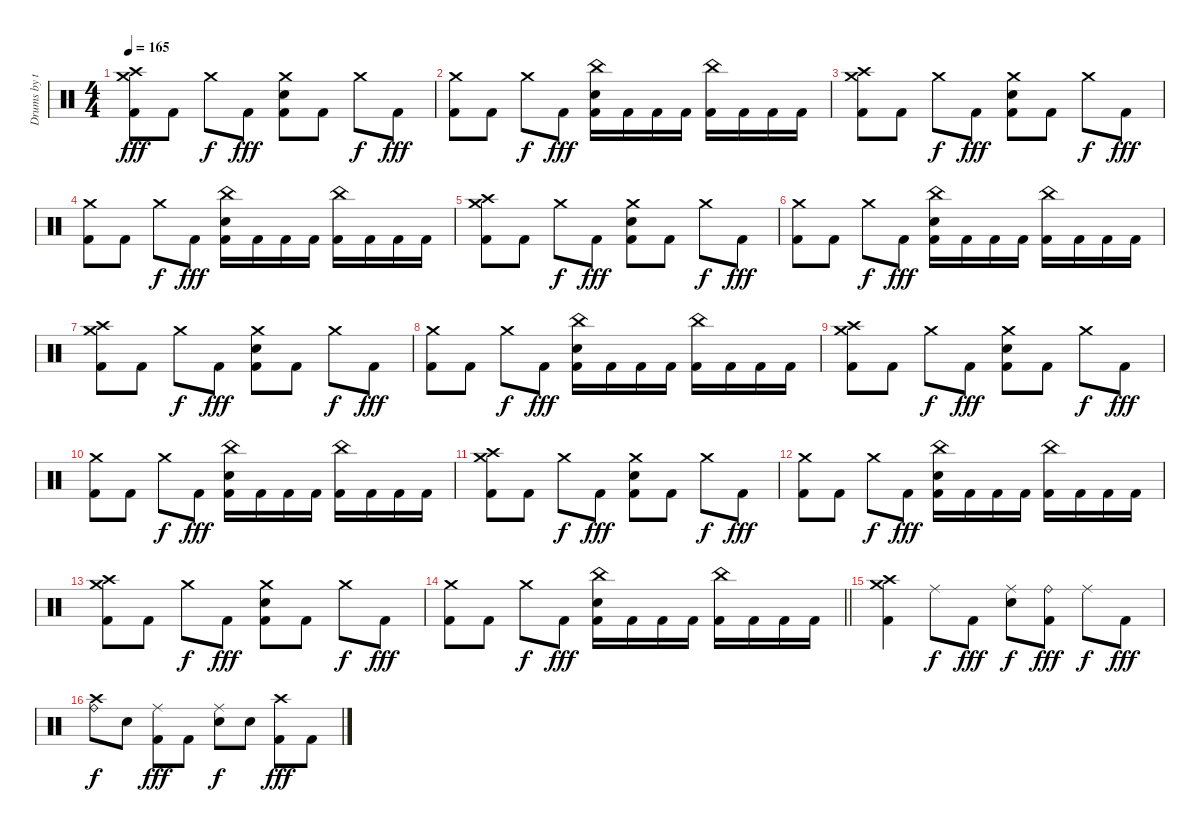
\track ("Drums by terryn0" "Drums by t") {instrument percussion}
\staff {score}
\articulation defaults
\ts (4 4)
\tempo 165
\clef neutral
\ks c
("Crash medium (hit)" "Crash high (hit)" "Kick (hit) 2").8{dy fff} "Kick (hit) 2".8 "Crash medium (hit)".8{dy f} "Kick (hit) 2".8{dy fff} ("Crash medium (hit)" "Electric Snare (hit)" "Kick (hit) 2").8 "Kick (hit) 2".8 "Crash medium (hit)".8{dy f} "Kick (hit) 2".8{dy fff} |
("Crash medium (hit)" "Kick (hit) 2").8 "Kick (hit) 2".8 "Crash medium (hit)".8{dy f} "Kick (hit) 2".8{dy fff} ("China (hit)" "Electric Snare (hit)" "Kick (hit) 2").16 "Kick (hit) 2".16 "Kick (hit) 2".16 "Kick (hit) 2".16 ("China (hit)" "Kick (hit) 2").16 "Kick (hit) 2".16 "Kick (hit) 2".16 "Kick (hit) 2".16 |
("Crash medium (hit)" "Crash high (hit)" "Kick (hit) 2").8 "Kick (hit) 2".8 "Crash medium (hit)".8{dy f} "Kick (hit) 2".8{dy fff} ("Crash medium (hit)" "Electric Snare (hit)" "Kick (hit) 2").8 "Kick (hit) 2".8 "Crash medium (hit)".8{dy f} "Kick (hit) 2".8{dy fff} |
("Crash medium (hit)" "Kick (hit) 2").8 "Kick (hit) 2".8 "Crash medium (hit)".8{dy f} "Kick (hit) 2".8{dy fff} ("China (hit)" "Electric Snare (hit)" "Kick (hit) 2").16 "Kick (hit) 2".16 "Kick (hit) 2".16 "Kick (hit) 2".16 ("China (hit)" "Kick (hit) 2").16 "Kick (hit) 2".16 "Kick (hit) 2".16 "Kick (hit) 2".16 |
("Crash medium (hit)" "Crash high (hit)" "Kick (hit) 2").8 "Kick (hit) 2".8 "Crash medium (hit)".8{dy f} "Kick (hit) 2".8{dy fff} ("Crash medium (hit)" "Electric Snare (hit)" "Kick (hit) 2").8 "Kick (hit) 2".8 "Crash medium (hit)".8{dy f} "Kick (hit) 2".8{dy fff} |
("Crash medium (hit)" "Kick (hit) 2").8 "Kick (hit) 2".8 "Crash medium (hit)".8{dy f} "Kick (hit) 2".8{dy fff} ("China (hit)" "Electric Snare (hit)" "Kick (hit) 2").16 "Kick (hit) 2".16 "Kick (hit) 2".16 "Kick (hit) 2".16 ("China (hit)" "Kick (hit) 2").16 "Kick (hit) 2".16 "Kick (hit) 2".16 "Kick (hit) 2".16 |
("Crash medium (hit)" "Crash high (hit)" "Kick (hit) 2").8 "Kick (hit) 2".8 "Crash medium (hit)".8{dy f} "Kick (hit) 2".8{dy fff} ("Crash medium (hit)" "Electric Snare (hit)" "Kick (hit) 2").8 "Kick (hit) 2".8 "Crash medium (hit)".8{dy f} "Kick (hit) 2".8{dy fff} |
("Crash medium (hit)" "Kick (hit) 2").8 "Kick (hit) 2".8 "Crash medium (hit)".8{dy f} "Kick (hit) 2".8{dy fff} ("China (hit)" "Electric Snare (hit)" "Kick (hit) 2").16 "Kick (hit) 2".16 "Kick (hit) 2".16 "Kick (hit) 2".16 ("China (hit)" "Kick (hit) 2").16 "Kick (hit) 2".16 "Kick (hit) 2".16 "Kick (hit) 2".16 |
("Crash medium (hit)" "Crash high (hit)" "Kick (hit) 2").8 "Kick (hit) 2".8 "Crash medium (hit)".8{dy f} "Kick (hit) 2".8{dy fff} ("Crash medium (hit)" "Electric Snare (hit)" "Kick (hit) 2").8 "Kick (hit) 2".8 "Crash medium (hit)".8{dy f} "Kick (hit) 2".8{dy fff} |
("Crash medium (hit)" "Kick (hit) 2").8 "Kick (hit) 2".8 "Crash medium (hit)".8{dy f} "Kick (hit) 2".8{dy fff} ("China (hit)" "Electric Snare (hit)" "Kick (hit) 2").16 "Kick (hit) 2".16 "Kick (hit) 2".16 "Kick (hit) 2".16 ("China (hit)" "Kick (hit) 2").16 "Kick (hit) 2".16 "Kick (hit) 2".16 "Kick (hit) 2".16 |
("Crash medium (hit)" "Crash high (hit)" "Kick (hit) 2").8 "Kick (hit) 2".8 "Crash medium (hit)".8{dy f} "Kick (hit) 2".8{dy fff} ("Crash medium (hit)" "Electric Snare (hit)" "Kick (hit) 2").8 "Kick (hit) 2".8 "Crash medium (hit)".8{dy f} "Kick (hit) 2".8{dy fff} |
("Crash medium (hit)" "Kick (hit) 2").8 "Kick (hit) 2".8 "Crash medium (hit)".8{dy f} "Kick (hit) 2".8{dy fff} ("China (hit)" "Electric Snare (hit)" "Kick (hit) 2").16 "Kick (hit) 2".16 "Kick (hit) 2".16 "Kick (hit) 2".16 ("China (hit)" "Kick (hit) 2").16 "Kick (hit) 2".16 "Kick (hit) 2".16 "Kick (hit) 2".16 |
("Crash medium (hit)" "Crash high (hit)" "Kick (hit) 2").8 "Kick (hit) 2".8 "Crash medium (hit)".8{dy f} "Kick (hit) 2".8{dy fff} ("Crash medium (hit)" "Electric Snare (hit)" "Kick (hit) 2").8 "Kick (hit) 2".8 "Crash medium (hit)".8{dy f} "Kick (hit) 2".8{dy fff} |
\barLineRight lightlight
("Crash medium (hit)" "Kick (hit) 2").8 "Kick (hit) 2".8 "Crash medium (hit)".8{dy f} "Kick (hit) 2".8{dy fff} ("China (hit)" "Electric Snare (hit)" "Kick (hit) 2").16 "Kick (hit) 2".16 "Kick (hit) 2".16 "Kick (hit) 2".16 ("China (hit)" "Kick (hit) 2").16 "Kick (hit) 2".16 "Kick (hit) 2".16 "Kick (hit) 2".16 |
("Crash high (hit)" "Crash medium (hit)" "Kick (hit) 2").4 "Ride (middle)".8{dy f} "Kick (hit) 2".8{dy fff} ("Ride (middle)" "Electric Snare (hit)").8{dy f} ("Ride (bell)" "Kick (hit) 2").8{dy fff} "Ride (middle)".8{dy f} "Kick (hit) 2".8{dy fff} |
("Ride (bell)" "Crash high (hit)").8{dy f} "Electric Snare (hit)".8 ("Ride (middle)" "Kick (hit) 2").8{dy fff} "Kick (hit) 2".8 ("Ride (middle)" "Electric Snare (hit)").8{dy f} "Electric Snare (hit)".8 ("Crash high (hit)" "Kick (hit) 2").8{dy fff} "Kick (hit) 2".8
